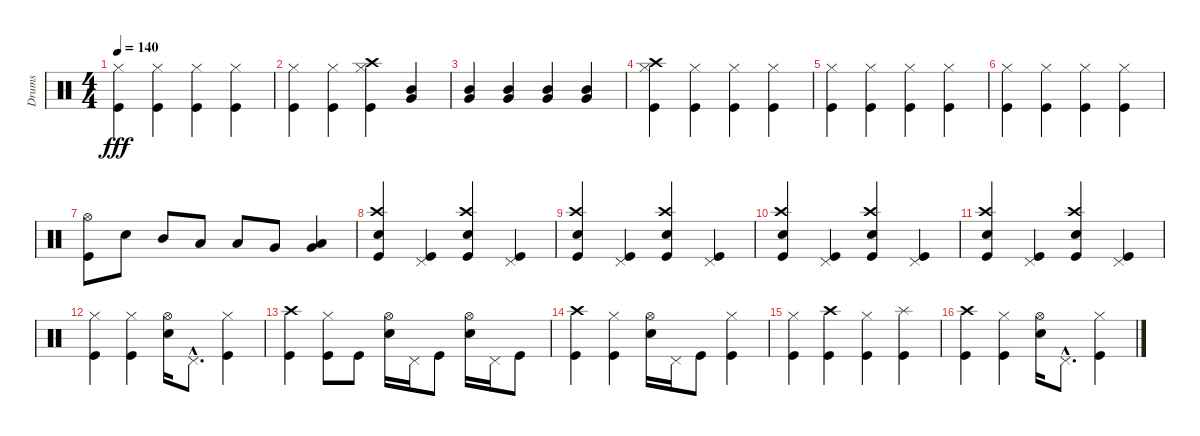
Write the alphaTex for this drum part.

\track ("Drums" "Drums") {instrument percussion}
\staff {score}
\articulation defaults
\ts (4 4)
\tempo 140
\clef neutral
\ks c
("Hi-Hat (closed)" "Kick (hit)").4{dy fff} ("Hi-Hat (closed)" "Kick (hit)").4 ("Hi-Hat (closed)" "Kick (hit)").4 ("Hi-Hat (closed)" "Kick (hit)").4 |
("Hi-Hat (closed)" "Kick (hit)").4 ("Hi-Hat (closed)" "Kick (hit)").4 ("Hi-Hat (closed)" "Crash high (hit)" "Kick (hit)").4 ("Mid Tom (hit)" "Very Low Tom (hit)").4 |
("Mid Tom (hit)" "Very Low Tom (hit)").4 ("Mid Tom (hit)" "Very Low Tom (hit)").4 ("Mid Tom (hit)" "Very Low Tom (hit)").4 ("Mid Tom (hit)" "Very Low Tom (hit)").4 |
("Hi-Hat (closed)" "Crash high (hit)" "Kick (hit)").4 ("Hi-Hat (closed)" "Kick (hit)").4 ("Hi-Hat (closed)" "Kick (hit)").4 ("Hi-Hat (closed)" "Kick (hit)").4 |
("Hi-Hat (closed)" "Kick (hit)").4 ("Hi-Hat (closed)" "Kick (hit)").4 ("Hi-Hat (closed)" "Kick (hit)").4 ("Hi-Hat (closed)" "Kick (hit)").4 |
("Hi-Hat (closed)" "Kick (hit)").4 ("Hi-Hat (closed)" "Kick (hit)").4 ("Hi-Hat (closed)" "Kick (hit)").4 ("Hi-Hat (closed)" "Kick (hit)").4 |
("Hi-Hat (open)" "Kick (hit)").8 "Electric Snare (hit)".8 "Mid Tom (hit)".8 "Low Tom (hit)".8 "Low Tom (hit)".8 "Very Low Tom (hit)".8 ("Very Low Tom (hit)" "Low Floor Tom (hit)").4 |
("Crash high (hit)" "Electric Snare (hit)" "Kick (hit)").4 ("Pedal Hi-Hat (hit)" "Kick (hit)").4 ("Crash high (hit)" "Electric Snare (hit)" "Kick (hit)").4 ("Pedal Hi-Hat (hit)" "Kick (hit)").4 |
("Crash high (hit)" "Electric Snare (hit)" "Kick (hit)").4 ("Pedal Hi-Hat (hit)" "Kick (hit)").4 ("Crash high (hit)" "Electric Snare (hit)" "Kick (hit)").4 ("Pedal Hi-Hat (hit)" "Kick (hit)").4 |
("Crash high (hit)" "Electric Snare (hit)" "Kick (hit)").4 ("Pedal Hi-Hat (hit)" "Kick (hit)").4 ("Crash high (hit)" "Electric Snare (hit)" "Kick (hit)").4 ("Pedal Hi-Hat (hit)" "Kick (hit)").4 |
("Crash high (hit)" "Electric Snare (hit)" "Kick (hit)").4 ("Pedal Hi-Hat (hit)" "Kick (hit)").4 ("Crash high (hit)" "Electric Snare (hit)" "Kick (hit)").4 ("Pedal Hi-Hat (hit)" "Kick (hit)").4 |
("Hi-Hat (closed)" "Kick (hit)").4 ("Hi-Hat (closed)" "Kick (hit)").4 ("Hi-Hat (open)" "Electric Snare (hit)").16 "Pedal Hi-Hat (hit)"{hac}.8{d} ("Hi-Hat (closed)" "Kick (hit)").4 |
("Crash high (hit)" "Kick (hit)").4 ("Hi-Hat (closed)" "Kick (hit)").8 "Kick (hit)".8 ("Hi-Hat (open)" "Electric Snare (hit)").16 "Pedal Hi-Hat (hit)".16 "Kick (hit)".8 ("Hi-Hat (open)" "Electric Snare (hit)").16 "Pedal Hi-Hat (hit)".16 "Kick (hit)".8 |
("Crash high (hit)" "Kick (hit)").4 ("Hi-Hat (closed)" "Kick (hit)").4 ("Hi-Hat (open)" "Electric Snare (hit)").16 "Pedal Hi-Hat (hit)".16 "Kick (hit)".8 ("Hi-Hat (closed)" "Kick (hit)").4 |
("Hi-Hat (closed)" "Kick (hit)").4 ("Crash high (hit)" "Kick (hit)").4 ("Hi-Hat (closed)" "Kick (hit)").4 ("Splash (hit)" "Kick (hit)").4 |
("Crash high (hit)" "Kick (hit)").4 ("Hi-Hat (closed)" "Kick (hit)").4 ("Hi-Hat (open)" "Electric Snare (hit)").16 "Pedal Hi-Hat (hit)"{hac}.8{d} ("Hi-Hat (closed)" "Kick (hit)").4
